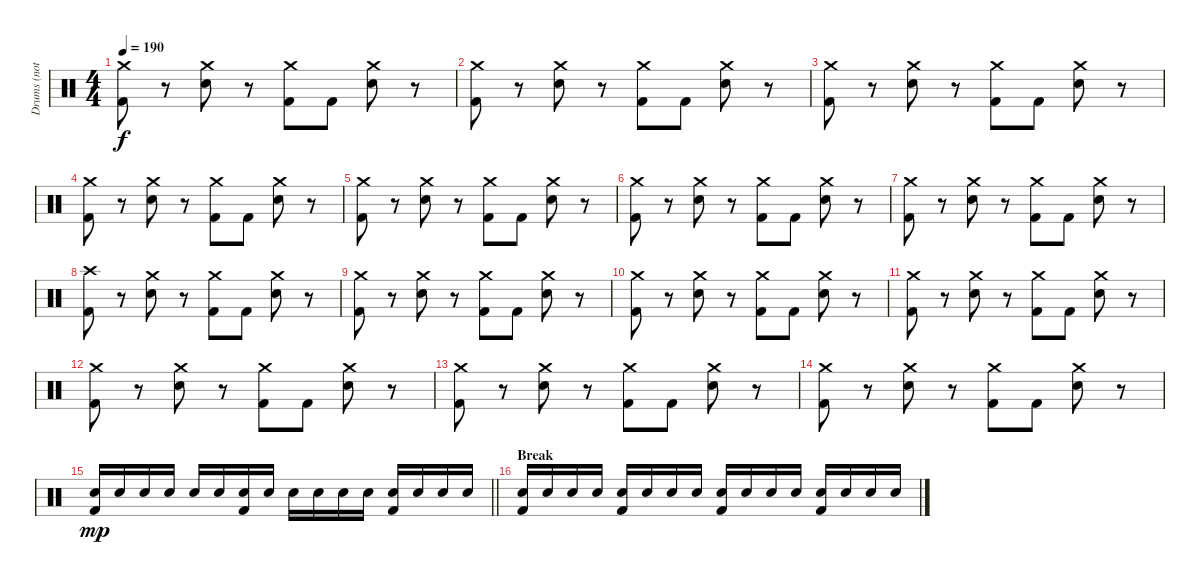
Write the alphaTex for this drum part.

\track ("Drums (not correct)" "Drums (not") {instrument percussion}
\staff {score}
\articulation defaults
\ts (4 4)
\tempo 190
\clef neutral
\ks c
("Crash medium (hit)" "Kick (hit) 2").8{dy f} r.8 ("Crash medium (hit)" "Electric Snare (hit)").8 r.8 ("Crash medium (hit)" "Kick (hit) 2").8 "Kick (hit) 2".8 ("Crash medium (hit)" "Electric Snare (hit)").8 r.8 |
("Crash medium (hit)" "Kick (hit) 2").8 r.8 ("Crash medium (hit)" "Electric Snare (hit)").8 r.8 ("Crash medium (hit)" "Kick (hit) 2").8 "Kick (hit) 2".8 ("Crash medium (hit)" "Electric Snare (hit)").8 r.8 |
("Crash medium (hit)" "Kick (hit) 2").8 r.8 ("Crash medium (hit)" "Electric Snare (hit)").8 r.8 ("Crash medium (hit)" "Kick (hit) 2").8 "Kick (hit) 2".8 ("Crash medium (hit)" "Electric Snare (hit)").8 r.8 |
("Crash medium (hit)" "Kick (hit) 2").8 r.8 ("Crash medium (hit)" "Electric Snare (hit)").8 r.8 ("Crash medium (hit)" "Kick (hit) 2").8 "Kick (hit) 2".8 ("Crash medium (hit)" "Electric Snare (hit)").8 r.8 |
("Crash medium (hit)" "Kick (hit) 2").8 r.8 ("Crash medium (hit)" "Electric Snare (hit)").8 r.8 ("Crash medium (hit)" "Kick (hit) 2").8 "Kick (hit) 2".8 ("Crash medium (hit)" "Electric Snare (hit)").8 r.8 |
("Crash medium (hit)" "Kick (hit) 2").8 r.8 ("Crash medium (hit)" "Electric Snare (hit)").8 r.8 ("Crash medium (hit)" "Kick (hit) 2").8 "Kick (hit) 2".8 ("Crash medium (hit)" "Electric Snare (hit)").8 r.8 |
("Crash medium (hit)" "Kick (hit) 2").8 r.8 ("Crash medium (hit)" "Electric Snare (hit)").8 r.8 ("Crash medium (hit)" "Kick (hit) 2").8 "Kick (hit) 2".8 ("Crash medium (hit)" "Electric Snare (hit)").8 r.8 |
("Crash high (hit)" "Kick (hit) 2").8 r.8 ("Crash medium (hit)" "Electric Snare (hit)").8 r.8 ("Crash medium (hit)" "Kick (hit) 2").8 "Kick (hit) 2".8 ("Crash medium (hit)" "Electric Snare (hit)").8 r.8 |
("Crash medium (hit)" "Kick (hit) 2").8 r.8 ("Crash medium (hit)" "Electric Snare (hit)").8 r.8 ("Crash medium (hit)" "Kick (hit) 2").8 "Kick (hit) 2".8 ("Crash medium (hit)" "Electric Snare (hit)").8 r.8 |
("Crash medium (hit)" "Kick (hit) 2").8 r.8 ("Crash medium (hit)" "Electric Snare (hit)").8 r.8 ("Crash medium (hit)" "Kick (hit) 2").8 "Kick (hit) 2".8 ("Crash medium (hit)" "Electric Snare (hit)").8 r.8 |
("Crash medium (hit)" "Kick (hit) 2").8 r.8 ("Crash medium (hit)" "Electric Snare (hit)").8 r.8 ("Crash medium (hit)" "Kick (hit) 2").8 "Kick (hit) 2".8 ("Crash medium (hit)" "Electric Snare (hit)").8 r.8 |
("Crash medium (hit)" "Kick (hit) 2").8 r.8 ("Crash medium (hit)" "Electric Snare (hit)").8 r.8 ("Crash medium (hit)" "Kick (hit) 2").8 "Kick (hit) 2".8 ("Crash medium (hit)" "Electric Snare (hit)").8 r.8 |
("Crash medium (hit)" "Kick (hit) 2").8 r.8 ("Crash medium (hit)" "Electric Snare (hit)").8 r.8 ("Crash medium (hit)" "Kick (hit) 2").8 "Kick (hit) 2".8 ("Crash medium (hit)" "Electric Snare (hit)").8 r.8 |
("Crash medium (hit)" "Kick (hit) 2").8 r.8 ("Crash medium (hit)" "Electric Snare (hit)").8 r.8 ("Crash medium (hit)" "Kick (hit) 2").8 "Kick (hit) 2".8 ("Crash medium (hit)" "Electric Snare (hit)").8 r.8 |
\barLineRight lightlight
("Electric Snare (hit)" "Kick (hit) 2").16{dy mp} "Electric Snare (hit)".16 "Electric Snare (hit)".16 "Electric Snare (hit)".16 "Electric Snare (hit)".16 "Electric Snare (hit)".16 ("Electric Snare (hit)" "Kick (hit) 2").16 "Electric Snare (hit)".16 "Electric Snare (hit)".16 "Electric Snare (hit)".16 "Electric Snare (hit)".16 "Electric Snare (hit)".16 ("Electric Snare (hit)" "Kick (hit) 2").16 "Electric Snare (hit)".16 "Electric Snare (hit)".16 "Electric Snare (hit)".16 |
\section ("" "Break")
("Electric Snare (hit)" "Kick (hit) 2").16 "Electric Snare (hit)".16 "Electric Snare (hit)".16 "Electric Snare (hit)".16 ("Electric Snare (hit)" "Kick (hit) 2").16 "Electric Snare (hit)".16 "Electric Snare (hit)".16 "Electric Snare (hit)".16 ("Electric Snare (hit)" "Kick (hit) 2").16 "Electric Snare (hit)".16 "Electric Snare (hit)".16 "Electric Snare (hit)".16 ("Electric Snare (hit)" "Kick (hit) 2").16 "Electric Snare (hit)".16 "Electric Snare (hit)".16 "Electric Snare (hit)".16
